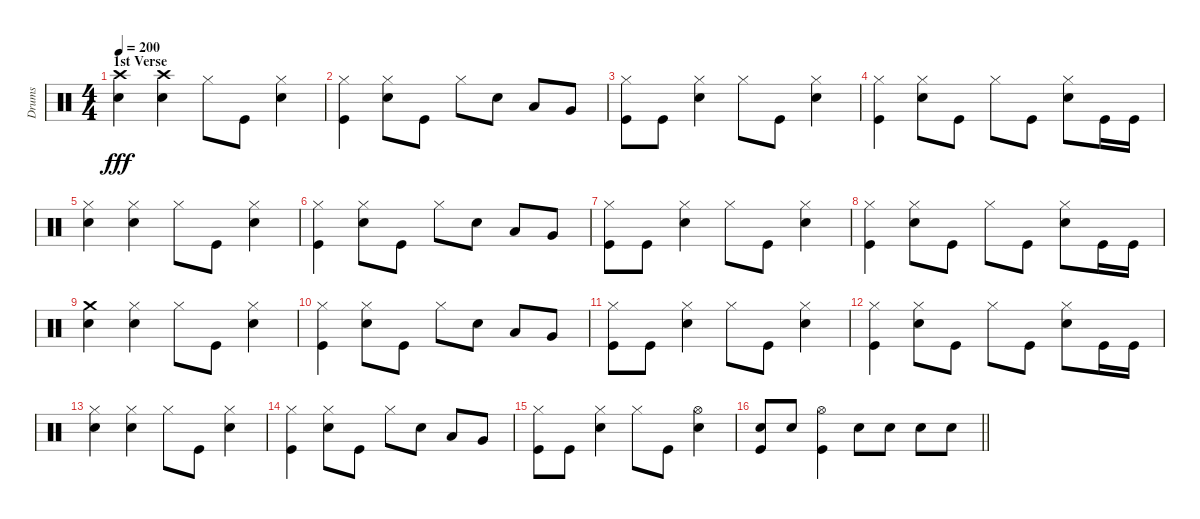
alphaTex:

\track ("Drums" "Drums") {instrument percussion}
\staff {score}
\articulation defaults
\ts (4 4)
\section ("" "1st Verse")
\tempo 200
\clef neutral
\ks c
("Crash high (hit)" "Snare (hit) 2").4{dy fff} ("Crash high (hit)" "Snare (hit) 2").4 "Hi-Hat (closed)".8 "Kick (hit)".8 ("Hi-Hat (closed)" "Snare (hit) 2").4 |
("Hi-Hat (closed)" "Kick (hit)").4 ("Hi-Hat (closed)" "Snare (hit) 2").8 "Kick (hit)".8 "Hi-Hat (closed)".8 "Snare (hit) 2".8 "Low Tom (hit)".8 "Very Low Tom (hit)".8 |
("Hi-Hat (closed)" "Kick (hit)").8 "Kick (hit)".8 ("Hi-Hat (closed)" "Snare (hit) 2").4 "Hi-Hat (closed)".8 "Kick (hit)".8 ("Hi-Hat (closed)" "Snare (hit) 2").4 |
("Hi-Hat (closed)" "Kick (hit)").4 ("Hi-Hat (closed)" "Snare (hit) 2").8 "Kick (hit)".8 "Hi-Hat (closed)".8 "Kick (hit)".8 ("Hi-Hat (closed)" "Snare (hit) 2").8 "Kick (hit)".16 "Kick (hit)".16 |
("Hi-Hat (closed)" "Snare (hit) 2").4 ("Hi-Hat (closed)" "Snare (hit) 2").4 "Hi-Hat (closed)".8 "Kick (hit)".8 ("Hi-Hat (closed)" "Snare (hit) 2").4 |
("Hi-Hat (closed)" "Kick (hit)").4 ("Hi-Hat (closed)" "Snare (hit) 2").8 "Kick (hit)".8 "Hi-Hat (closed)".8 "Snare (hit) 2".8 "Low Tom (hit)".8 "Very Low Tom (hit)".8 |
("Hi-Hat (closed)" "Kick (hit)").8 "Kick (hit)".8 ("Hi-Hat (closed)" "Snare (hit) 2").4 "Hi-Hat (closed)".8 "Kick (hit)".8 ("Hi-Hat (closed)" "Snare (hit) 2").4 |
("Hi-Hat (closed)" "Kick (hit)").4 ("Hi-Hat (closed)" "Snare (hit) 2").8 "Kick (hit)".8 "Hi-Hat (closed)".8 "Kick (hit)".8 ("Hi-Hat (closed)" "Snare (hit) 2").8 "Kick (hit)".16 "Kick (hit)".16 |
("Crash medium (hit)" "Snare (hit) 2").4 ("Hi-Hat (closed)" "Snare (hit) 2").4 "Hi-Hat (closed)".8 "Kick (hit)".8 ("Hi-Hat (closed)" "Snare (hit) 2").4 |
("Hi-Hat (closed)" "Kick (hit)").4 ("Hi-Hat (closed)" "Snare (hit) 2").8 "Kick (hit)".8 "Hi-Hat (closed)".8 "Snare (hit) 2".8 "Low Tom (hit)".8 "Very Low Tom (hit)".8 |
("Hi-Hat (closed)" "Kick (hit)").8 "Kick (hit)".8 ("Hi-Hat (closed)" "Snare (hit) 2").4 "Hi-Hat (closed)".8 "Kick (hit)".8 ("Hi-Hat (closed)" "Snare (hit) 2").4 |
("Hi-Hat (closed)" "Kick (hit)").4 ("Hi-Hat (closed)" "Snare (hit) 2").8 "Kick (hit)".8 "Hi-Hat (closed)".8 "Kick (hit)".8 ("Hi-Hat (closed)" "Snare (hit) 2").8 "Kick (hit)".16 "Kick (hit)".16 |
("Hi-Hat (closed)" "Snare (hit) 2").4 ("Hi-Hat (closed)" "Snare (hit) 2").4 "Hi-Hat (closed)".8 "Kick (hit)".8 ("Hi-Hat (closed)" "Snare (hit) 2").4 |
("Hi-Hat (closed)" "Kick (hit)").4 ("Hi-Hat (closed)" "Snare (hit) 2").8 "Kick (hit)".8 "Hi-Hat (closed)".8 "Snare (hit) 2".8 "Low Tom (hit)".8 "Very Low Tom (hit)".8 |
("Hi-Hat (closed)" "Kick (hit)").8 "Kick (hit)".8 ("Hi-Hat (closed)" "Snare (hit) 2").4 "Hi-Hat (closed)".8 "Kick (hit)".8 ("Hi-Hat (open)" "Snare (hit) 2").4 |
\barLineRight lightlight
("Snare (hit) 2" "Kick (hit)").8 "Snare (hit) 2".8 ("Hi-Hat (open)" "Kick (hit)").4 "Snare (hit) 2".8 "Snare (hit) 2".8 "Snare (hit) 2".8 "Snare (hit) 2".8
